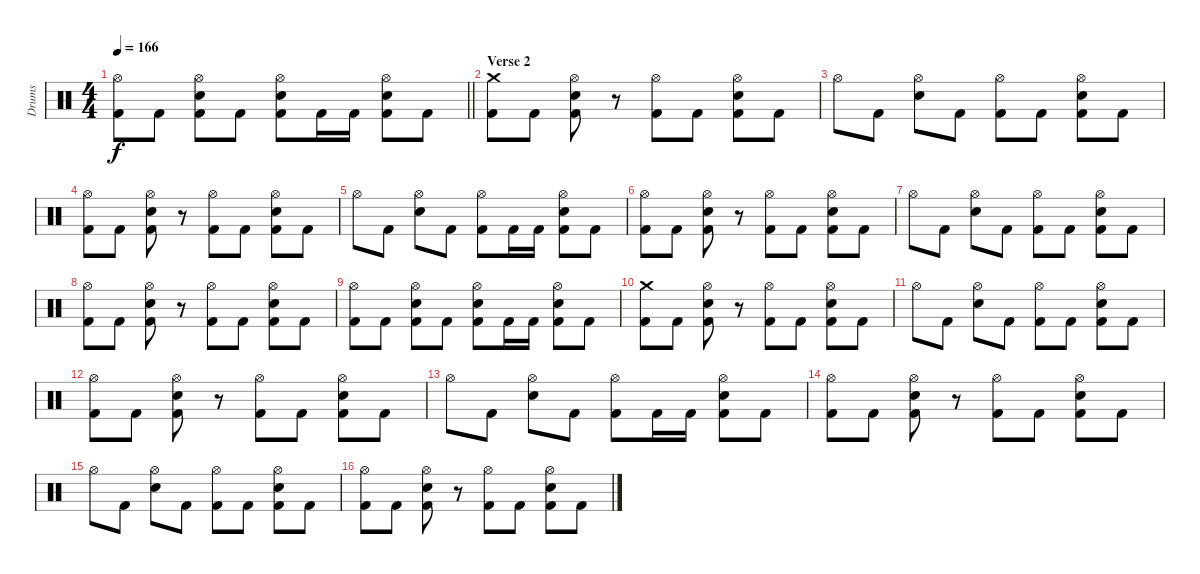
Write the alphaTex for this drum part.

\track ("Drums" "Drums") {instrument percussion}
\staff {score}
\articulation defaults
\ts (4 4)
\tempo 166
\clef neutral
\barLineRight lightlight
\ks c
("Hi-Hat (open)" "Kick (hit) 2").8{dy f} "Kick (hit) 2".8 ("Hi-Hat (open)" "Electric Snare (hit)" "Kick (hit) 2").8 "Kick (hit) 2".8 ("Hi-Hat (open)" "Electric Snare (hit)" "Kick (hit) 2").8 "Kick (hit) 2".16 "Kick (hit) 2".16 ("Hi-Hat (open)" "Electric Snare (hit)" "Kick (hit) 2").8 "Kick (hit) 2".8 |
\section ("" "Verse 2")
("Crash medium (hit)" "Kick (hit) 2").8 "Kick (hit) 2".8 ("Hi-Hat (open)" "Electric Snare (hit)" "Kick (hit) 2").8 r.8 ("Hi-Hat (open)" "Kick (hit) 2").8 "Kick (hit) 2".8 ("Hi-Hat (open)" "Electric Snare (hit)" "Kick (hit) 2").8 "Kick (hit) 2".8 |
"Hi-Hat (open)".8 "Kick (hit) 2".8 ("Hi-Hat (open)" "Electric Snare (hit)").8 "Kick (hit) 2".8 ("Hi-Hat (open)" "Kick (hit) 2").8 "Kick (hit) 2".8 ("Hi-Hat (open)" "Electric Snare (hit)" "Kick (hit) 2").8 "Kick (hit) 2".8 |
("Hi-Hat (open)" "Kick (hit) 2").8 "Kick (hit) 2".8 ("Hi-Hat (open)" "Electric Snare (hit)" "Kick (hit) 2").8 r.8 ("Hi-Hat (open)" "Kick (hit) 2").8 "Kick (hit) 2".8 ("Hi-Hat (open)" "Electric Snare (hit)" "Kick (hit) 2").8 "Kick (hit) 2".8 |
"Hi-Hat (open)".8 "Kick (hit) 2".8 ("Hi-Hat (open)" "Electric Snare (hit)").8 "Kick (hit) 2".8 ("Hi-Hat (open)" "Kick (hit) 2").8 "Kick (hit) 2".16 "Kick (hit) 2".16 ("Hi-Hat (open)" "Electric Snare (hit)" "Kick (hit) 2").8 "Kick (hit) 2".8 |
("Hi-Hat (open)" "Kick (hit) 2").8 "Kick (hit) 2".8 ("Hi-Hat (open)" "Electric Snare (hit)" "Kick (hit) 2").8 r.8 ("Hi-Hat (open)" "Kick (hit) 2").8 "Kick (hit) 2".8 ("Hi-Hat (open)" "Electric Snare (hit)" "Kick (hit) 2").8 "Kick (hit) 2".8 |
"Hi-Hat (open)".8 "Kick (hit) 2".8 ("Hi-Hat (open)" "Electric Snare (hit)").8 "Kick (hit) 2".8 ("Hi-Hat (open)" "Kick (hit) 2").8 "Kick (hit) 2".8 ("Hi-Hat (open)" "Electric Snare (hit)" "Kick (hit) 2").8 "Kick (hit) 2".8 |
("Hi-Hat (open)" "Kick (hit) 2").8 "Kick (hit) 2".8 ("Hi-Hat (open)" "Electric Snare (hit)" "Kick (hit) 2").8 r.8 ("Hi-Hat (open)" "Kick (hit) 2").8 "Kick (hit) 2".8 ("Hi-Hat (open)" "Electric Snare (hit)" "Kick (hit) 2").8 "Kick (hit) 2".8 |
("Hi-Hat (open)" "Kick (hit) 2").8 "Kick (hit) 2".8 ("Hi-Hat (open)" "Electric Snare (hit)" "Kick (hit) 2").8 "Kick (hit) 2".8 ("Hi-Hat (open)" "Electric Snare (hit)" "Kick (hit) 2").8 "Kick (hit) 2".16 "Kick (hit) 2".16 ("Hi-Hat (open)" "Electric Snare (hit)" "Kick (hit) 2").8 "Kick (hit) 2".8 |
("Crash medium (hit)" "Kick (hit) 2").8 "Kick (hit) 2".8 ("Hi-Hat (open)" "Electric Snare (hit)" "Kick (hit) 2").8 r.8 ("Hi-Hat (open)" "Kick (hit) 2").8 "Kick (hit) 2".8 ("Hi-Hat (open)" "Electric Snare (hit)" "Kick (hit) 2").8 "Kick (hit) 2".8 |
"Hi-Hat (open)".8 "Kick (hit) 2".8 ("Hi-Hat (open)" "Electric Snare (hit)").8 "Kick (hit) 2".8 ("Hi-Hat (open)" "Kick (hit) 2").8 "Kick (hit) 2".8 ("Hi-Hat (open)" "Electric Snare (hit)" "Kick (hit) 2").8 "Kick (hit) 2".8 |
("Hi-Hat (open)" "Kick (hit) 2").8 "Kick (hit) 2".8 ("Hi-Hat (open)" "Electric Snare (hit)" "Kick (hit) 2").8 r.8 ("Hi-Hat (open)" "Kick (hit) 2").8 "Kick (hit) 2".8 ("Hi-Hat (open)" "Electric Snare (hit)" "Kick (hit) 2").8 "Kick (hit) 2".8 |
"Hi-Hat (open)".8 "Kick (hit) 2".8 ("Hi-Hat (open)" "Electric Snare (hit)").8 "Kick (hit) 2".8 ("Hi-Hat (open)" "Kick (hit) 2").8 "Kick (hit) 2".16 "Kick (hit) 2".16 ("Hi-Hat (open)" "Electric Snare (hit)" "Kick (hit) 2").8 "Kick (hit) 2".8 |
("Hi-Hat (open)" "Kick (hit) 2").8 "Kick (hit) 2".8 ("Hi-Hat (open)" "Electric Snare (hit)" "Kick (hit) 2").8 r.8 ("Hi-Hat (open)" "Kick (hit) 2").8 "Kick (hit) 2".8 ("Hi-Hat (open)" "Electric Snare (hit)" "Kick (hit) 2").8 "Kick (hit) 2".8 |
"Hi-Hat (open)".8 "Kick (hit) 2".8 ("Hi-Hat (open)" "Electric Snare (hit)").8 "Kick (hit) 2".8 ("Hi-Hat (open)" "Kick (hit) 2").8 "Kick (hit) 2".8 ("Hi-Hat (open)" "Electric Snare (hit)" "Kick (hit) 2").8 "Kick (hit) 2".8 |
("Hi-Hat (open)" "Kick (hit) 2").8 "Kick (hit) 2".8 ("Hi-Hat (open)" "Electric Snare (hit)" "Kick (hit) 2").8 r.8 ("Hi-Hat (open)" "Kick (hit) 2").8 "Kick (hit) 2".8 ("Hi-Hat (open)" "Electric Snare (hit)" "Kick (hit) 2").8 "Kick (hit) 2".8
